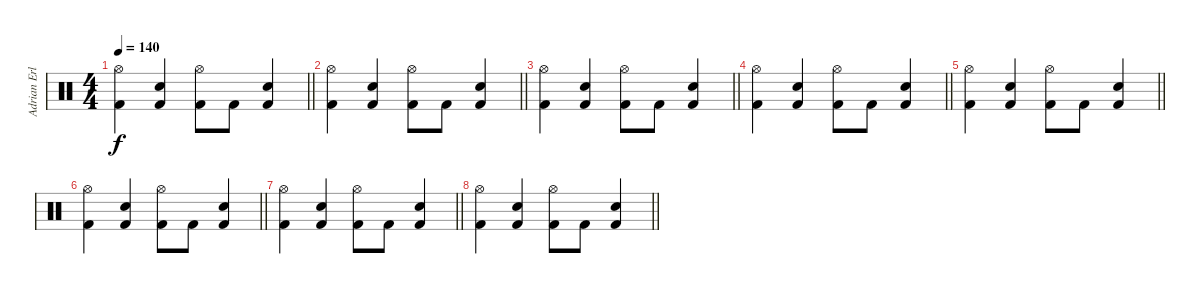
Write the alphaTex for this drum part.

\track ("Adrian Erlandsson" "Adrian Erl") {instrument percussion}
\staff {score}
\articulation defaults
\ts (4 4)
\tempo 140
\clef neutral
\barLineRight lightlight
\ks c
("Kick (hit) 2" "Hi-Hat (open)").4{dy f} ("Kick (hit) 2" "Electric Snare (hit)").4 ("Kick (hit) 2" "Hi-Hat (open)").8 "Kick (hit) 2".8 ("Kick (hit) 2" "Electric Snare (hit)").4 |
\barLineRight lightlight
("Kick (hit) 2" "Hi-Hat (open)").4 ("Kick (hit) 2" "Electric Snare (hit)").4 ("Kick (hit) 2" "Hi-Hat (open)").8 "Kick (hit) 2".8 ("Kick (hit) 2" "Electric Snare (hit)").4 |
\barLineRight lightlight
("Kick (hit) 2" "Hi-Hat (open)").4 ("Kick (hit) 2" "Electric Snare (hit)").4 ("Kick (hit) 2" "Hi-Hat (open)").8 "Kick (hit) 2".8 ("Kick (hit) 2" "Electric Snare (hit)").4 |
\barLineRight lightlight
("Kick (hit) 2" "Hi-Hat (open)").4 ("Kick (hit) 2" "Electric Snare (hit)").4 ("Kick (hit) 2" "Hi-Hat (open)").8 "Kick (hit) 2".8 ("Kick (hit) 2" "Electric Snare (hit)").4 |
\barLineRight lightlight
("Kick (hit) 2" "Hi-Hat (open)").4 ("Kick (hit) 2" "Electric Snare (hit)").4 ("Kick (hit) 2" "Hi-Hat (open)").8 "Kick (hit) 2".8 ("Kick (hit) 2" "Electric Snare (hit)").4 |
\barLineRight lightlight
("Kick (hit) 2" "Hi-Hat (open)").4 ("Kick (hit) 2" "Electric Snare (hit)").4 ("Kick (hit) 2" "Hi-Hat (open)").8 "Kick (hit) 2".8 ("Kick (hit) 2" "Electric Snare (hit)").4 |
\barLineRight lightlight
("Kick (hit) 2" "Hi-Hat (open)").4 ("Kick (hit) 2" "Electric Snare (hit)").4 ("Kick (hit) 2" "Hi-Hat (open)").8 "Kick (hit) 2".8 ("Kick (hit) 2" "Electric Snare (hit)").4 |
\barLineRight lightlight
("Kick (hit) 2" "Hi-Hat (open)").4 ("Kick (hit) 2" "Electric Snare (hit)").4 ("Kick (hit) 2" "Hi-Hat (open)").8 "Kick (hit) 2".8 ("Kick (hit) 2" "Electric Snare (hit)").4
